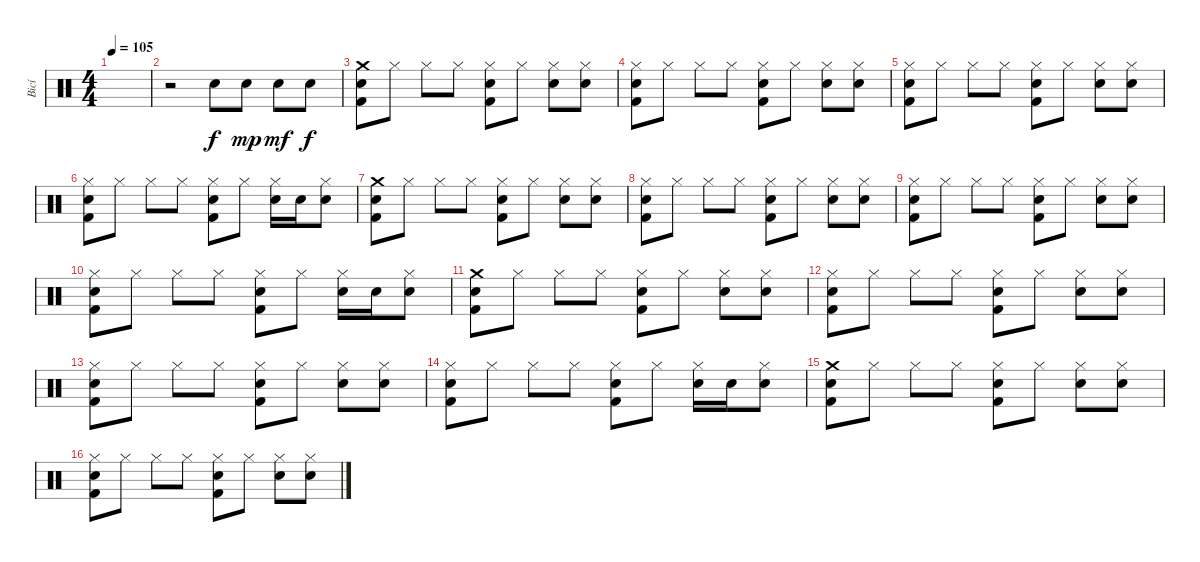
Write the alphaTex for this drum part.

\track ("Bicí" "Bicí") {instrument percussion}
\staff {score}
\articulation defaults
\ts (4 4)
\tempo 105
\clef neutral
\ks c
|
r.2 "Electric Snare (hit)".8 "Electric Snare (hit)".8{dy mp} "Electric Snare (hit)".8{dy mf} "Electric Snare (hit)".8{dy f} |
("Crash medium (hit)" "Electric Snare (hit)" "Kick (hit) 2").8 "Hi-Hat (closed)".8 "Hi-Hat (closed)".8 "Hi-Hat (closed)".8 ("Hi-Hat (closed)" "Electric Snare (hit)" "Kick (hit) 2").8 "Hi-Hat (closed)".8 ("Hi-Hat (closed)" "Electric Snare (hit)").8 ("Hi-Hat (closed)" "Electric Snare (hit)").8 |
("Hi-Hat (closed)" "Electric Snare (hit)" "Kick (hit) 2").8 "Hi-Hat (closed)".8 "Hi-Hat (closed)".8 "Hi-Hat (closed)".8 ("Hi-Hat (closed)" "Electric Snare (hit)" "Kick (hit) 2").8 "Hi-Hat (closed)".8 ("Hi-Hat (closed)" "Electric Snare (hit)").8 ("Hi-Hat (closed)" "Electric Snare (hit)").8 |
("Hi-Hat (closed)" "Electric Snare (hit)" "Kick (hit) 2").8 "Hi-Hat (closed)".8 "Hi-Hat (closed)".8 "Hi-Hat (closed)".8 ("Hi-Hat (closed)" "Electric Snare (hit)" "Kick (hit) 2").8 "Hi-Hat (closed)".8 ("Hi-Hat (closed)" "Electric Snare (hit)").8 ("Hi-Hat (closed)" "Electric Snare (hit)").8 |
("Hi-Hat (closed)" "Electric Snare (hit)" "Kick (hit) 2").8 "Hi-Hat (closed)".8 "Hi-Hat (closed)".8 "Hi-Hat (closed)".8 ("Hi-Hat (closed)" "Electric Snare (hit)" "Kick (hit) 2").8 "Hi-Hat (closed)".8 ("Hi-Hat (closed)" "Electric Snare (hit)").16 "Electric Snare (hit)".16 ("Hi-Hat (closed)" "Electric Snare (hit)").8 |
("Crash medium (hit)" "Electric Snare (hit)" "Kick (hit) 2").8 "Hi-Hat (closed)".8 "Hi-Hat (closed)".8 "Hi-Hat (closed)".8 ("Hi-Hat (closed)" "Electric Snare (hit)" "Kick (hit) 2").8 "Hi-Hat (closed)".8 ("Hi-Hat (closed)" "Electric Snare (hit)").8 ("Hi-Hat (closed)" "Electric Snare (hit)").8 |
("Hi-Hat (closed)" "Electric Snare (hit)" "Kick (hit) 2").8 "Hi-Hat (closed)".8 "Hi-Hat (closed)".8 "Hi-Hat (closed)".8 ("Hi-Hat (closed)" "Electric Snare (hit)" "Kick (hit) 2").8 "Hi-Hat (closed)".8 ("Hi-Hat (closed)" "Electric Snare (hit)").8 ("Hi-Hat (closed)" "Electric Snare (hit)").8 |
("Hi-Hat (closed)" "Electric Snare (hit)" "Kick (hit) 2").8 "Hi-Hat (closed)".8 "Hi-Hat (closed)".8 "Hi-Hat (closed)".8 ("Hi-Hat (closed)" "Electric Snare (hit)" "Kick (hit) 2").8 "Hi-Hat (closed)".8 ("Hi-Hat (closed)" "Electric Snare (hit)").8 ("Hi-Hat (closed)" "Electric Snare (hit)").8 |
("Hi-Hat (closed)" "Electric Snare (hit)" "Kick (hit) 2").8 "Hi-Hat (closed)".8 "Hi-Hat (closed)".8 "Hi-Hat (closed)".8 ("Hi-Hat (closed)" "Electric Snare (hit)" "Kick (hit) 2").8 "Hi-Hat (closed)".8 ("Hi-Hat (closed)" "Electric Snare (hit)").16 "Electric Snare (hit)".16 ("Hi-Hat (closed)" "Electric Snare (hit)").8 |
("Crash medium (hit)" "Electric Snare (hit)" "Kick (hit) 2").8 "Hi-Hat (closed)".8 "Hi-Hat (closed)".8 "Hi-Hat (closed)".8 ("Hi-Hat (closed)" "Electric Snare (hit)" "Kick (hit) 2").8 "Hi-Hat (closed)".8 ("Hi-Hat (closed)" "Electric Snare (hit)").8 ("Hi-Hat (closed)" "Electric Snare (hit)").8 |
("Hi-Hat (closed)" "Electric Snare (hit)" "Kick (hit) 2").8 "Hi-Hat (closed)".8 "Hi-Hat (closed)".8 "Hi-Hat (closed)".8 ("Hi-Hat (closed)" "Electric Snare (hit)" "Kick (hit) 2").8 "Hi-Hat (closed)".8 ("Hi-Hat (closed)" "Electric Snare (hit)").8 ("Hi-Hat (closed)" "Electric Snare (hit)").8 |
("Hi-Hat (closed)" "Electric Snare (hit)" "Kick (hit) 2").8 "Hi-Hat (closed)".8 "Hi-Hat (closed)".8 "Hi-Hat (closed)".8 ("Hi-Hat (closed)" "Electric Snare (hit)" "Kick (hit) 2").8 "Hi-Hat (closed)".8 ("Hi-Hat (closed)" "Electric Snare (hit)").8 ("Hi-Hat (closed)" "Electric Snare (hit)").8 |
("Hi-Hat (closed)" "Electric Snare (hit)" "Kick (hit) 2").8 "Hi-Hat (closed)".8 "Hi-Hat (closed)".8 "Hi-Hat (closed)".8 ("Hi-Hat (closed)" "Electric Snare (hit)" "Kick (hit) 2").8 "Hi-Hat (closed)".8 ("Hi-Hat (closed)" "Electric Snare (hit)").16 "Electric Snare (hit)".16 ("Hi-Hat (closed)" "Electric Snare (hit)").8 |
("Crash medium (hit)" "Electric Snare (hit)" "Kick (hit) 2").8 "Hi-Hat (closed)".8 "Hi-Hat (closed)".8 "Hi-Hat (closed)".8 ("Hi-Hat (closed)" "Electric Snare (hit)" "Kick (hit) 2").8 "Hi-Hat (closed)".8 ("Hi-Hat (closed)" "Electric Snare (hit)").8 ("Hi-Hat (closed)" "Electric Snare (hit)").8 |
("Hi-Hat (closed)" "Electric Snare (hit)" "Kick (hit) 2").8 "Hi-Hat (closed)".8 "Hi-Hat (closed)".8 "Hi-Hat (closed)".8 ("Hi-Hat (closed)" "Electric Snare (hit)" "Kick (hit) 2").8 "Hi-Hat (closed)".8 ("Hi-Hat (closed)" "Electric Snare (hit)").8 ("Hi-Hat (closed)" "Electric Snare (hit)").8
